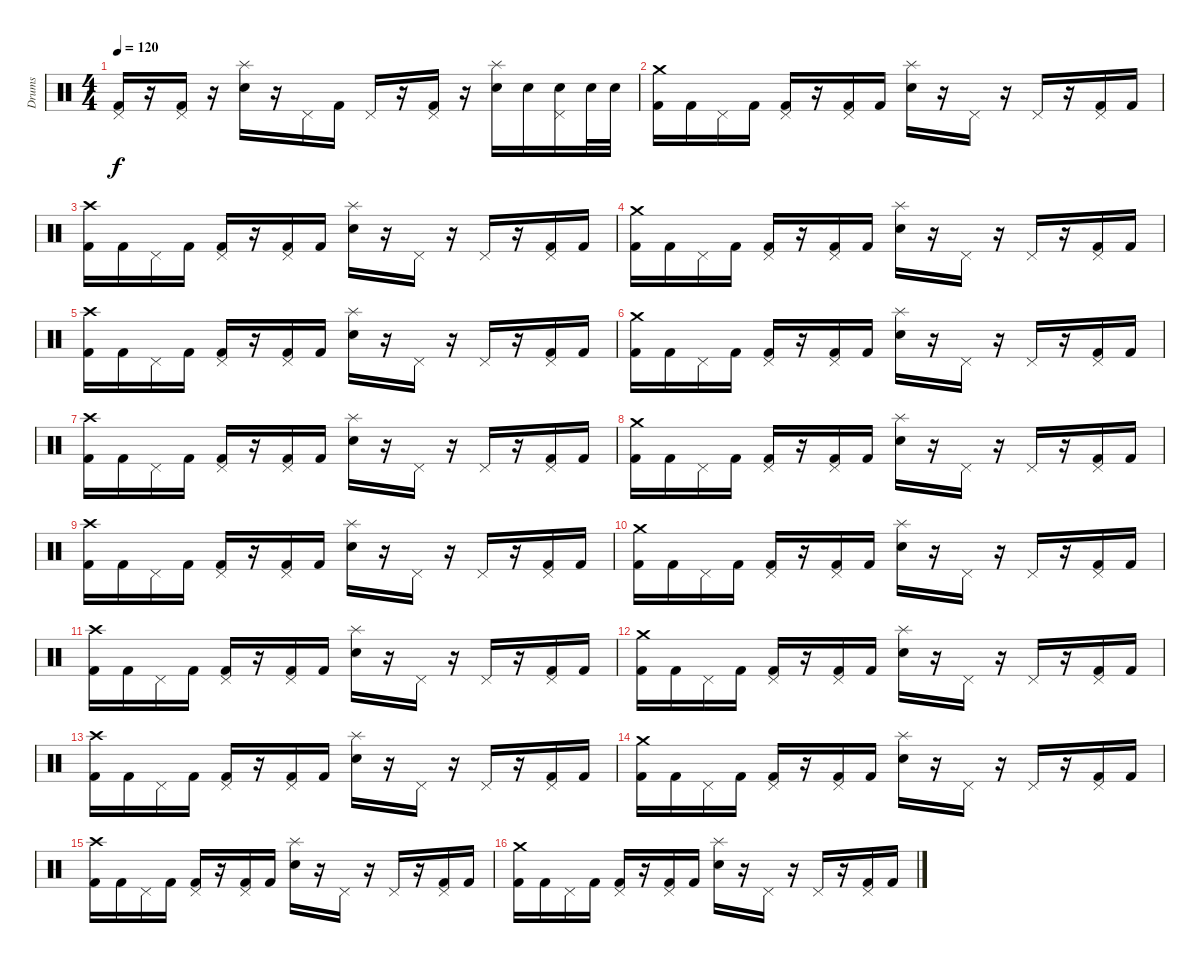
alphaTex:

\track ("Drums" "Drums") {instrument percussion}
\staff {score}
\articulation defaults
\ts (4 4)
\tempo 120
\clef neutral
\ks c
("Pedal Hi-Hat (hit)" "Kick (hit) 2").16{dy f} r.16 ("Pedal Hi-Hat (hit)" "Kick (hit) 2").16 r.16 ("Splash (hit)" "Electric Snare (hit)").16 r.16 "Pedal Hi-Hat (hit)".16 "Kick (hit) 2".16 "Pedal Hi-Hat (hit)".16 r.16 ("Pedal Hi-Hat (hit)" "Kick (hit) 2").16 r.16 ("Splash (hit)" "Electric Snare (hit)").16 "Electric Snare (hit)".16 ("Pedal Hi-Hat (hit)" "Electric Snare (hit)").16 "Electric Snare (hit)".32 "Electric Snare (hit)".32 |
\section ("" "")
("Crash medium (hit)" "Kick (hit) 2").16 "Kick (hit) 2".16 "Pedal Hi-Hat (hit)".16 "Kick (hit) 2".16 ("Pedal Hi-Hat (hit)" "Kick (hit) 2").16 r.16 ("Pedal Hi-Hat (hit)" "Kick (hit) 2").16 "Kick (hit) 2".16 ("Splash (hit)" "Electric Snare (hit)").16 r.16 "Pedal Hi-Hat (hit)".16 r.16 "Pedal Hi-Hat (hit)".16 r.16 ("Pedal Hi-Hat (hit)" "Kick (hit) 2").16 "Kick (hit) 2".16 |
("Crash high (hit)" "Kick (hit) 2").16 "Kick (hit) 2".16 "Pedal Hi-Hat (hit)".16 "Kick (hit) 2".16 ("Pedal Hi-Hat (hit)" "Kick (hit) 2").16 r.16 ("Pedal Hi-Hat (hit)" "Kick (hit) 2").16 "Kick (hit) 2".16 ("Splash (hit)" "Electric Snare (hit)").16 r.16 "Pedal Hi-Hat (hit)".16 r.16 "Pedal Hi-Hat (hit)".16 r.16 ("Pedal Hi-Hat (hit)" "Kick (hit) 2").16 "Kick (hit) 2".16 |
("Crash medium (hit)" "Kick (hit) 2").16 "Kick (hit) 2".16 "Pedal Hi-Hat (hit)".16 "Kick (hit) 2".16 ("Pedal Hi-Hat (hit)" "Kick (hit) 2").16 r.16 ("Pedal Hi-Hat (hit)" "Kick (hit) 2").16 "Kick (hit) 2".16 ("Splash (hit)" "Electric Snare (hit)").16 r.16 "Pedal Hi-Hat (hit)".16 r.16 "Pedal Hi-Hat (hit)".16 r.16 ("Pedal Hi-Hat (hit)" "Kick (hit) 2").16 "Kick (hit) 2".16 |
("Crash high (hit)" "Kick (hit) 2").16 "Kick (hit) 2".16 "Pedal Hi-Hat (hit)".16 "Kick (hit) 2".16 ("Pedal Hi-Hat (hit)" "Kick (hit) 2").16 r.16 ("Pedal Hi-Hat (hit)" "Kick (hit) 2").16 "Kick (hit) 2".16 ("Splash (hit)" "Electric Snare (hit)").16 r.16 "Pedal Hi-Hat (hit)".16 r.16 "Pedal Hi-Hat (hit)".16 r.16 ("Pedal Hi-Hat (hit)" "Kick (hit) 2").16 "Kick (hit) 2".16 |
("Crash medium (hit)" "Kick (hit) 2").16 "Kick (hit) 2".16 "Pedal Hi-Hat (hit)".16 "Kick (hit) 2".16 ("Pedal Hi-Hat (hit)" "Kick (hit) 2").16 r.16 ("Pedal Hi-Hat (hit)" "Kick (hit) 2").16 "Kick (hit) 2".16 ("Splash (hit)" "Electric Snare (hit)").16 r.16 "Pedal Hi-Hat (hit)".16 r.16 "Pedal Hi-Hat (hit)".16 r.16 ("Pedal Hi-Hat (hit)" "Kick (hit) 2").16 "Kick (hit) 2".16 |
("Crash high (hit)" "Kick (hit) 2").16 "Kick (hit) 2".16 "Pedal Hi-Hat (hit)".16 "Kick (hit) 2".16 ("Pedal Hi-Hat (hit)" "Kick (hit) 2").16 r.16 ("Pedal Hi-Hat (hit)" "Kick (hit) 2").16 "Kick (hit) 2".16 ("Splash (hit)" "Electric Snare (hit)").16 r.16 "Pedal Hi-Hat (hit)".16 r.16 "Pedal Hi-Hat (hit)".16 r.16 ("Pedal Hi-Hat (hit)" "Kick (hit) 2").16 "Kick (hit) 2".16 |
("Crash medium (hit)" "Kick (hit) 2").16 "Kick (hit) 2".16 "Pedal Hi-Hat (hit)".16 "Kick (hit) 2".16 ("Pedal Hi-Hat (hit)" "Kick (hit) 2").16 r.16 ("Pedal Hi-Hat (hit)" "Kick (hit) 2").16 "Kick (hit) 2".16 ("Splash (hit)" "Electric Snare (hit)").16 r.16 "Pedal Hi-Hat (hit)".16 r.16 "Pedal Hi-Hat (hit)".16 r.16 ("Pedal Hi-Hat (hit)" "Kick (hit) 2").16 "Kick (hit) 2".16 |
("Crash high (hit)" "Kick (hit) 2").16 "Kick (hit) 2".16 "Pedal Hi-Hat (hit)".16 "Kick (hit) 2".16 ("Pedal Hi-Hat (hit)" "Kick (hit) 2").16 r.16 ("Pedal Hi-Hat (hit)" "Kick (hit) 2").16 "Kick (hit) 2".16 ("Splash (hit)" "Electric Snare (hit)").16 r.16 "Pedal Hi-Hat (hit)".16 r.16 "Pedal Hi-Hat (hit)".16 r.16 ("Pedal Hi-Hat (hit)" "Kick (hit) 2").16 "Kick (hit) 2".16 |
("Crash medium (hit)" "Kick (hit) 2").16 "Kick (hit) 2".16 "Pedal Hi-Hat (hit)".16 "Kick (hit) 2".16 ("Pedal Hi-Hat (hit)" "Kick (hit) 2").16 r.16 ("Pedal Hi-Hat (hit)" "Kick (hit) 2").16 "Kick (hit) 2".16 ("Splash (hit)" "Electric Snare (hit)").16 r.16 "Pedal Hi-Hat (hit)".16 r.16 "Pedal Hi-Hat (hit)".16 r.16 ("Pedal Hi-Hat (hit)" "Kick (hit) 2").16 "Kick (hit) 2".16 |
("Crash high (hit)" "Kick (hit) 2").16 "Kick (hit) 2".16 "Pedal Hi-Hat (hit)".16 "Kick (hit) 2".16 ("Pedal Hi-Hat (hit)" "Kick (hit) 2").16 r.16 ("Pedal Hi-Hat (hit)" "Kick (hit) 2").16 "Kick (hit) 2".16 ("Splash (hit)" "Electric Snare (hit)").16 r.16 "Pedal Hi-Hat (hit)".16 r.16 "Pedal Hi-Hat (hit)".16 r.16 ("Pedal Hi-Hat (hit)" "Kick (hit) 2").16 "Kick (hit) 2".16 |
("Crash medium (hit)" "Kick (hit) 2").16 "Kick (hit) 2".16 "Pedal Hi-Hat (hit)".16 "Kick (hit) 2".16 ("Pedal Hi-Hat (hit)" "Kick (hit) 2").16 r.16 ("Pedal Hi-Hat (hit)" "Kick (hit) 2").16 "Kick (hit) 2".16 ("Splash (hit)" "Electric Snare (hit)").16 r.16 "Pedal Hi-Hat (hit)".16 r.16 "Pedal Hi-Hat (hit)".16 r.16 ("Pedal Hi-Hat (hit)" "Kick (hit) 2").16 "Kick (hit) 2".16 |
("Crash high (hit)" "Kick (hit) 2").16 "Kick (hit) 2".16 "Pedal Hi-Hat (hit)".16 "Kick (hit) 2".16 ("Pedal Hi-Hat (hit)" "Kick (hit) 2").16 r.16 ("Pedal Hi-Hat (hit)" "Kick (hit) 2").16 "Kick (hit) 2".16 ("Splash (hit)" "Electric Snare (hit)").16 r.16 "Pedal Hi-Hat (hit)".16 r.16 "Pedal Hi-Hat (hit)".16 r.16 ("Pedal Hi-Hat (hit)" "Kick (hit) 2").16 "Kick (hit) 2".16 |
("Crash medium (hit)" "Kick (hit) 2").16 "Kick (hit) 2".16 "Pedal Hi-Hat (hit)".16 "Kick (hit) 2".16 ("Pedal Hi-Hat (hit)" "Kick (hit) 2").16 r.16 ("Pedal Hi-Hat (hit)" "Kick (hit) 2").16 "Kick (hit) 2".16 ("Splash (hit)" "Electric Snare (hit)").16 r.16 "Pedal Hi-Hat (hit)".16 r.16 "Pedal Hi-Hat (hit)".16 r.16 ("Pedal Hi-Hat (hit)" "Kick (hit) 2").16 "Kick (hit) 2".16 |
("Crash high (hit)" "Kick (hit) 2").16 "Kick (hit) 2".16 "Pedal Hi-Hat (hit)".16 "Kick (hit) 2".16 ("Pedal Hi-Hat (hit)" "Kick (hit) 2").16 r.16 ("Pedal Hi-Hat (hit)" "Kick (hit) 2").16 "Kick (hit) 2".16 ("Splash (hit)" "Electric Snare (hit)").16 r.16 "Pedal Hi-Hat (hit)".16 r.16 "Pedal Hi-Hat (hit)".16 r.16 ("Pedal Hi-Hat (hit)" "Kick (hit) 2").16 "Kick (hit) 2".16 |
("Crash medium (hit)" "Kick (hit) 2").16 "Kick (hit) 2".16 "Pedal Hi-Hat (hit)".16 "Kick (hit) 2".16 ("Pedal Hi-Hat (hit)" "Kick (hit) 2").16 r.16 ("Pedal Hi-Hat (hit)" "Kick (hit) 2").16 "Kick (hit) 2".16 ("Splash (hit)" "Electric Snare (hit)").16 r.16 "Pedal Hi-Hat (hit)".16 r.16 "Pedal Hi-Hat (hit)".16 r.16 ("Pedal Hi-Hat (hit)" "Kick (hit) 2").16 "Kick (hit) 2".16
